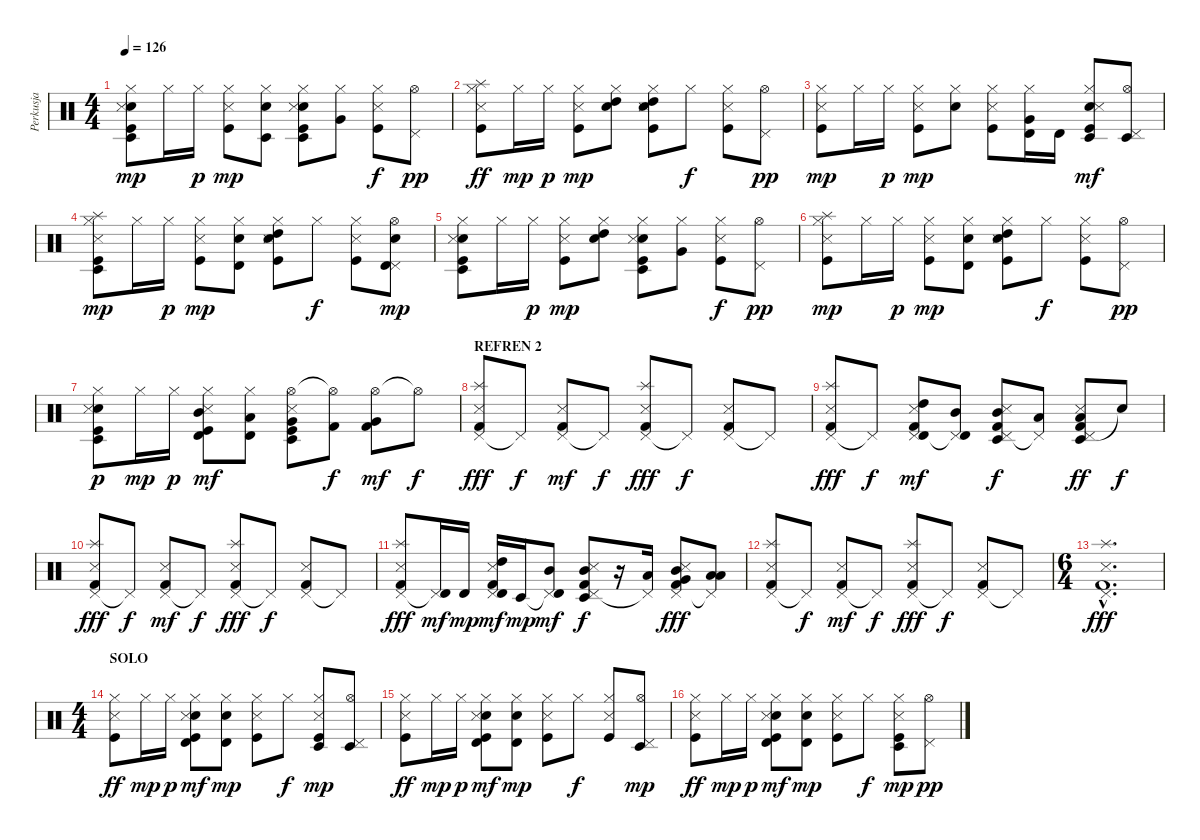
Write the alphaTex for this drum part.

\track ("Perkusja" "Perkusja") {instrument percussion}
\staff {score}
\articulation defaults
\ts (4 4)
\tempo 126
\clef neutral
\ks c
("Hi-Hat (closed)" "Kick (hit)" "Timbale low (hit)" "Electric Snare (hit)" "Snare (side stick) 3").8{dy mp} "Hi-Hat (closed)".16 "Hi-Hat (closed)".16{dy p} ("Hi-Hat (closed)" "Kick (hit)" "Snare (side stick) 3").8{dy mp} ("Hi-Hat (closed)" "Timbale low (hit)" "Electric Snare (hit)").8 ("Hi-Hat (closed)" "Kick (hit)" "Timbale low (hit)" "Electric Snare (hit)" "Snare (side stick) 3").8 ("Hi-Hat (closed)" "Very Low Tom (hit)").8 ("Hi-Hat (closed)" "Kick (hit)" "Snare (side stick) 3").8{dy f} ("Hi-Hat (open)" "Pedal Hi-Hat (hit)").8{dy pp} |
("Hi-Hat (closed)" "Kick (hit)" "Splash (hit)" "Snare (side stick) 3").8{dy ff} "Hi-Hat (closed)".16{dy mp} "Hi-Hat (closed)".16{dy p} ("Hi-Hat (closed)" "Kick (hit)" "Snare (side stick) 3").8{dy mp} ("Hi-Hat (closed)" "High Tom (hit)" "Electric Snare (hit)").8 ("Hi-Hat (closed)" "Kick (hit)" "High Tom (hit)" "Electric Snare (hit)" "Snare (side stick) 3").8 "Hi-Hat (closed)".8{dy f} ("Hi-Hat (closed)" "Kick (hit)" "Snare (side stick) 3").8 ("Hi-Hat (open)" "Pedal Hi-Hat (hit)").8{dy pp} |
("Hi-Hat (closed)" "Kick (hit)" "Snare (side stick) 3").8{dy mp} "Hi-Hat (closed)".16 "Hi-Hat (closed)".16{dy p} ("Hi-Hat (closed)" "Kick (hit)" "Snare (side stick) 3").8{dy mp} ("Hi-Hat (closed)" "Electric Snare (hit)").8 ("Hi-Hat (closed)" "Kick (hit)" "Snare (side stick) 3").8 ("Hi-Hat (closed)" "Very Low Tom (hit)" "Timbale high (hit)").16 "Timbale high (hit)".16 ("Hi-Hat (closed)" "Kick (hit)" "Timbale low (hit)" "Electric Snare (hit)" "Snare (side stick) 3").8{dy mf} ("Hi-Hat (open)" "Pedal Hi-Hat (hit)" "Timbale low (hit)").8 |
("Hi-Hat (closed)" "Kick (hit)" "Timbale low (hit)" "Splash (hit)" "Snare (side stick) 3").8{dy mp} "Hi-Hat (closed)".16 "Hi-Hat (closed)".16{dy p} ("Hi-Hat (closed)" "Kick (hit)" "Snare (side stick) 3").8{dy mp} ("Hi-Hat (closed)" "Timbale high (hit)" "Electric Snare (hit)").8 ("Hi-Hat (closed)" "Kick (hit)" "High Tom (hit)" "Electric Snare (hit)" "Snare (side stick) 3").8 "Hi-Hat (closed)".8{dy f} ("Hi-Hat (closed)" "Kick (hit)" "Snare (side stick) 3").8 ("Hi-Hat (open)" "Pedal Hi-Hat (hit)" "Timbale high (hit)" "Electric Snare (hit)").8{dy mp} |
("Hi-Hat (closed)" "Kick (hit)" "Timbale low (hit)" "Electric Snare (hit)" "Snare (side stick) 3").8 "Hi-Hat (closed)".16 "Hi-Hat (closed)".16{dy p} ("Hi-Hat (closed)" "Kick (hit)" "Snare (side stick) 3").8{dy mp} ("Hi-Hat (closed)" "High Tom (hit)" "Electric Snare (hit)").8 ("Hi-Hat (closed)" "Kick (hit)" "Timbale low (hit)" "Electric Snare (hit)" "Snare (side stick) 3").8 ("Hi-Hat (closed)" "Very Low Tom (hit)").8 ("Hi-Hat (closed)" "Kick (hit)" "Snare (side stick) 3").8{dy f} ("Hi-Hat (open)" "Pedal Hi-Hat (hit)").8{dy pp} |
("Hi-Hat (closed)" "Kick (hit)" "Splash (hit)" "Snare (side stick) 3").8{dy mp} "Hi-Hat (closed)".16 "Hi-Hat (closed)".16{dy p} ("Hi-Hat (closed)" "Kick (hit)" "Snare (side stick) 3").8{dy mp} ("Hi-Hat (closed)" "Timbale high (hit)" "Electric Snare (hit)").8 ("Hi-Hat (closed)" "Kick (hit)" "High Tom (hit)" "Electric Snare (hit)" "Snare (side stick) 3").8 "Hi-Hat (closed)".8{dy f} ("Hi-Hat (closed)" "Kick (hit)" "Snare (side stick) 3").8 ("Hi-Hat (open)" "Pedal Hi-Hat (hit)").8{dy pp} |
("Hi-Hat (closed)" "Kick (hit)" "Timbale low (hit)" "Electric Snare (hit)" "Snare (side stick) 3").8{dy p} "Hi-Hat (closed)".16{dy mp} "Hi-Hat (closed)".16{dy p} ("Hi-Hat (closed)" "Kick (hit)" "Timbale high (hit)" "Mid Tom (hit)" "Snare (side stick) 3").8{dy mf} ("Hi-Hat (closed)" "Timbale high (hit)" "Low Tom (hit)").8 ("Hi-Hat (open)" "Kick (hit)" "Timbale low (hit)" "Very Low Tom (hit)" "Snare (side stick) 3").8 ("Hi-Hat (open)"{t} "Kick (hit) 2").8{dy f} ("Hi-Hat (open)" "Kick (hit) 2" "Very Low Tom (hit)").8{dy mf} "Hi-Hat (open)"{t}.8{dy f} |
\section ("" "REFREN 2")
("Pedal Hi-Hat (hit)" "Kick (hit) 2" "Splash (hit)" "Snare (side stick) 3").8{dy fff} "Pedal Hi-Hat (hit)"{t}.8{dy f} ("Pedal Hi-Hat (hit)" "Kick (hit) 2" "Snare (side stick) 3").8{dy mf} "Pedal Hi-Hat (hit)"{t}.8{dy f} ("Pedal Hi-Hat (hit)" "Kick (hit) 2" "Splash (hit)" "Snare (side stick) 3").8{dy fff} "Pedal Hi-Hat (hit)"{t}.8{dy f} ("Pedal Hi-Hat (hit)" "Kick (hit) 2" "Snare (side stick) 3").8 "Pedal Hi-Hat (hit)"{t}.8 |
("Pedal Hi-Hat (hit)" "Kick (hit) 2" "Splash (hit)" "Snare (side stick) 3").8{dy fff} "Pedal Hi-Hat (hit)"{t}.8{dy f} ("Pedal Hi-Hat (hit)" "Kick (hit) 2" "Timbale high (hit)" "High Tom (hit)" "Snare (side stick) 3").8{dy mf} ("Pedal Hi-Hat (hit)"{t} "Timbale high (hit)" "Mid Tom (hit)").8 ("Pedal Hi-Hat (hit)" "Kick (hit) 2" "Timbale low (hit)" "Mid Tom (hit)" "Snare (side stick) 3").8{dy f} ("Pedal Hi-Hat (hit)"{t} "Low Tom (hit)").8 ("Pedal Hi-Hat (hit)" "Kick (hit) 2" "Timbale low (hit)" "Low Tom (hit)" "Snare (side stick) 3").8{dy ff} "Snare (hit)"{t}.8{dy f} |
("Pedal Hi-Hat (hit)" "Kick (hit) 2" "Splash (hit)" "Snare (side stick) 3").8{dy fff} "Pedal Hi-Hat (hit)"{t}.8{dy f} ("Pedal Hi-Hat (hit)" "Kick (hit) 2" "Snare (side stick) 3").8{dy mf} "Pedal Hi-Hat (hit)"{t}.8{dy f} ("Pedal Hi-Hat (hit)" "Kick (hit) 2" "Splash (hit)" "Snare (side stick) 3").8{dy fff} "Pedal Hi-Hat (hit)"{t}.8{dy f} ("Pedal Hi-Hat (hit)" "Kick (hit) 2" "Snare (side stick) 3").8 "Pedal Hi-Hat (hit)"{t}.8 |
("Pedal Hi-Hat (hit)" "Kick (hit) 2" "Splash (hit)" "Snare (side stick) 3").8{dy fff} ("Pedal Hi-Hat (hit)"{t} "Timbale high (hit)").16{dy mf} "Timbale high (hit)".16{dy mp} ("Pedal Hi-Hat (hit)" "Kick (hit) 2" "Timbale high (hit)" "High Tom (hit)" "Snare (side stick) 3").16{dy mf} "Timbale low (hit)".16{dy mp} ("Pedal Hi-Hat (hit)"{t} "Timbale high (hit)" "Mid Tom (hit)").8{dy mf} ("Pedal Hi-Hat (hit)" "Kick (hit) 2" "Timbale low (hit)" "Mid Tom (hit)" "Snare (side stick) 3").8{dy f} r.16 ("Pedal Hi-Hat (hit)"{t} "Low Tom (hit)").16 ("Pedal Hi-Hat (hit)" "Kick (hit) 2" "Mid Tom (hit)" "Very Low Tom (hit)" "Snare (side stick) 3").8{dy fff} ("Pedal Hi-Hat (hit)"{t} "Low Tom (hit)" "Low Floor Tom (hit)").8 |
("Pedal Hi-Hat (hit)" "Kick (hit) 2" "Splash (hit)" "Snare (side stick) 3").8 "Pedal Hi-Hat (hit)"{t}.8{dy f} ("Pedal Hi-Hat (hit)" "Kick (hit) 2" "Snare (side stick) 3").8{dy mf} "Pedal Hi-Hat (hit)"{t}.8{dy f} ("Pedal Hi-Hat (hit)" "Kick (hit) 2" "Splash (hit)" "Snare (side stick) 3").8{dy fff} "Pedal Hi-Hat (hit)"{t}.8{dy f} ("Pedal Hi-Hat (hit)" "Kick (hit) 2" "Snare (side stick) 3").8 "Pedal Hi-Hat (hit)"{t}.8 |
\ts (6 4)
("Pedal Hi-Hat (hit)"{hac} "Kick (hit) 2"{hac} "Splash (hit)"{hac} "Snare (side stick) 3"{hac}).1{d dy fff} |
\ts (4 4)
\section ("" "SOLO")
("Hi-Hat (closed)" "Kick (hit)" "Snare (side stick) 3").8{dy ff} "Hi-Hat (closed)".16{dy mp} "Hi-Hat (closed)".16{dy p} ("Hi-Hat (closed)" "Kick (hit)" "Timbale high (hit)" "Electric Snare (hit)" "Snare (side stick) 3").8{dy mf} ("Hi-Hat (closed)" "Timbale high (hit)" "Electric Snare (hit)").8{dy mp} ("Hi-Hat (closed)" "Kick (hit)" "Snare (side stick) 3").8 "Hi-Hat (closed)".8{dy f} ("Hi-Hat (closed)" "Kick (hit)" "Timbale low (hit)" "Snare (side stick) 3").8{dy mp} ("Hi-Hat (open)" "Pedal Hi-Hat (hit)" "Timbale low (hit)").8 |
("Hi-Hat (closed)" "Kick (hit)" "Snare (side stick) 3").8{dy ff} "Hi-Hat (closed)".16{dy mp} "Hi-Hat (closed)".16{dy p} ("Hi-Hat (closed)" "Kick (hit)" "Timbale high (hit)" "Electric Snare (hit)" "Snare (side stick) 3").8{dy mf} ("Hi-Hat (closed)" "Timbale high (hit)" "Electric Snare (hit)").8{dy mp} ("Hi-Hat (closed)" "Kick (hit)" "Snare (side stick) 3").8 "Hi-Hat (closed)".8{dy f} ("Hi-Hat (closed)" "Kick (hit)" "Snare (side stick) 3").8 ("Hi-Hat (open)" "Pedal Hi-Hat (hit)" "Timbale low (hit)").8{dy mp} |
("Hi-Hat (closed)" "Kick (hit)" "Snare (side stick) 3").8{dy ff} "Hi-Hat (closed)".16{dy mp} "Hi-Hat (closed)".16{dy p} ("Hi-Hat (closed)" "Kick (hit)" "Timbale high (hit)" "Electric Snare (hit)" "Snare (side stick) 3").8{dy mf} ("Hi-Hat (closed)" "Timbale high (hit)" "Electric Snare (hit)").8{dy mp} ("Hi-Hat (closed)" "Kick (hit)" "Snare (side stick) 3").8 "Hi-Hat (closed)".8{dy f} ("Hi-Hat (closed)" "Kick (hit)" "Timbale low (hit)" "Snare (side stick) 3").8{dy mp} ("Hi-Hat (open)" "Pedal Hi-Hat (hit)").8{dy pp}
